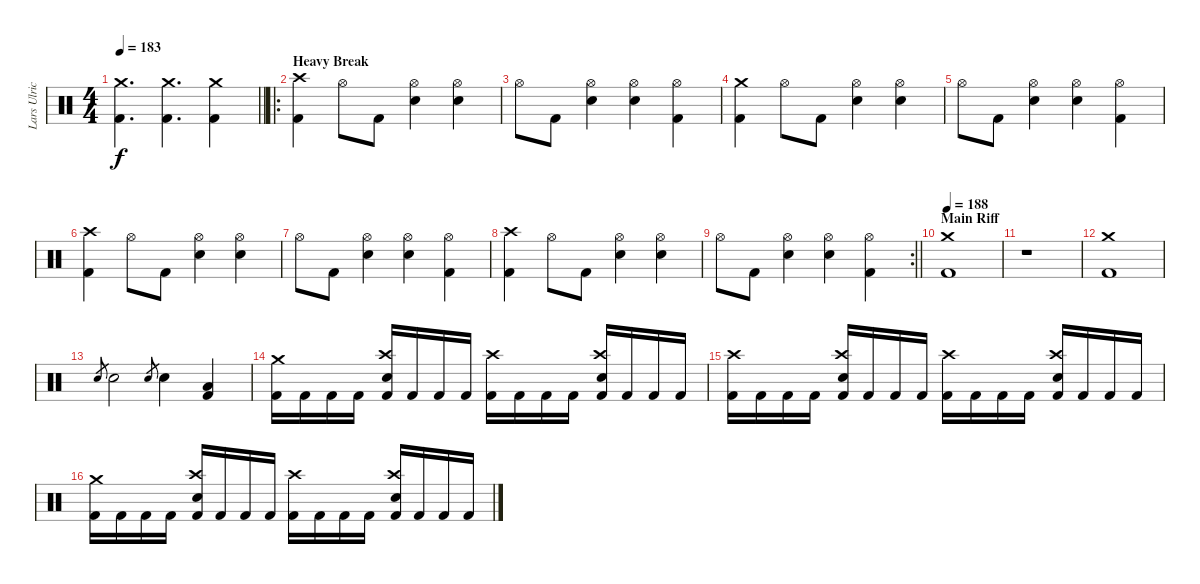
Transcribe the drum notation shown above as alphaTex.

\track ("Lars Ulrich" "Lars Ulric") {instrument percussion}
\staff {score}
\articulation defaults
\ts (4 4)
\tempo 183
\clef neutral
\barLineRight lightlight
\ks c
("Crash medium (hit)" "Kick (hit) 2").4{d dy f} ("Crash medium (hit)" "Kick (hit) 2").4{d} ("Crash medium (hit)" "Kick (hit) 2").4 |
\ro
\section ("" "Heavy Break")
("Crash high (hit)" "Kick (hit) 2").4 "Hi-Hat (open)".8 "Kick (hit) 2".8 ("Hi-Hat (open)" "Snare (hit) 2").4 ("Hi-Hat (open)" "Snare (hit) 2").4 |
"Hi-Hat (open)".8 "Kick (hit) 2".8 ("Hi-Hat (open)" "Snare (hit) 2").4 ("Hi-Hat (open)" "Snare (hit) 2").4 ("Hi-Hat (open)" "Kick (hit) 2").4 |
("Crash medium (hit)" "Kick (hit) 2").4 "Hi-Hat (open)".8 "Kick (hit) 2".8 ("Hi-Hat (open)" "Snare (hit) 2").4 ("Hi-Hat (open)" "Snare (hit) 2").4 |
"Hi-Hat (open)".8 "Kick (hit) 2".8 ("Hi-Hat (open)" "Snare (hit) 2").4 ("Hi-Hat (open)" "Snare (hit) 2").4 ("Hi-Hat (open)" "Kick (hit) 2").4 |
("Crash high (hit)" "Kick (hit) 2").4 "Hi-Hat (open)".8 "Kick (hit) 2".8 ("Hi-Hat (open)" "Snare (hit) 2").4 ("Hi-Hat (open)" "Snare (hit) 2").4 |
"Hi-Hat (open)".8 "Kick (hit) 2".8 ("Hi-Hat (open)" "Snare (hit) 2").4 ("Hi-Hat (open)" "Snare (hit) 2").4 ("Hi-Hat (open)" "Kick (hit) 2").4 |
("Crash high (hit)" "Kick (hit) 2").4 "Hi-Hat (open)".8 "Kick (hit) 2".8 ("Hi-Hat (open)" "Snare (hit) 2").4 ("Hi-Hat (open)" "Snare (hit) 2").4 |
\rc 2
\barLineRight lightlight "Hi-Hat (open)".8 "Kick (hit) 2".8
("Hi-Hat (open)" "Snare (hit) 2").4 ("Hi-Hat (open)" "Snare (hit) 2").4 ("Hi-Hat (open)" "Kick (hit) 2").4 |
\section ("" "Main Riff")
\tempo 188
("Crash medium (hit)" "Kick (hit) 2").1 |
r.1 |
("Crash medium (hit)" "Kick (hit) 2").1 |
"Snare (hit) 2".8{gr} "Snare (hit) 2".2 "Snare (hit) 2".8{gr} "Snare (hit) 2".4 ("Low Tom (hit)" "Kick (hit) 2").4 |
("Crash medium (hit)" "Kick (hit) 2").16 "Kick (hit) 2".16 "Kick (hit) 2".16 "Kick (hit) 2".16 ("Crash high (hit)" "Snare (hit) 2" "Kick (hit) 2").16 "Kick (hit) 2".16 "Kick (hit) 2".16 "Kick (hit) 2".16 ("Crash high (hit)" "Kick (hit) 2").16 "Kick (hit) 2".16 "Kick (hit) 2".16 "Kick (hit) 2".16 ("Crash high (hit)" "Snare (hit) 2" "Kick (hit) 2").16 "Kick (hit) 2".16 "Kick (hit) 2".16 "Kick (hit) 2".16 |
("Crash high (hit)" "Kick (hit) 2").16 "Kick (hit) 2".16 "Kick (hit) 2".16 "Kick (hit) 2".16 ("Crash high (hit)" "Snare (hit) 2" "Kick (hit) 2").16 "Kick (hit) 2".16 "Kick (hit) 2".16 "Kick (hit) 2".16 ("Crash high (hit)" "Kick (hit) 2").16 "Kick (hit) 2".16 "Kick (hit) 2".16 "Kick (hit) 2".16 ("Crash high (hit)" "Snare (hit) 2" "Kick (hit) 2").16 "Kick (hit) 2".16 "Kick (hit) 2".16 "Kick (hit) 2".16 |
("Crash medium (hit)" "Kick (hit) 2").16 "Kick (hit) 2".16 "Kick (hit) 2".16 "Kick (hit) 2".16 ("Crash high (hit)" "Snare (hit) 2" "Kick (hit) 2").16 "Kick (hit) 2".16 "Kick (hit) 2".16 "Kick (hit) 2".16 ("Crash high (hit)" "Kick (hit) 2").16 "Kick (hit) 2".16 "Kick (hit) 2".16 "Kick (hit) 2".16 ("Crash high (hit)" "Snare (hit) 2" "Kick (hit) 2").16 "Kick (hit) 2".16 "Kick (hit) 2".16 "Kick (hit) 2".16
